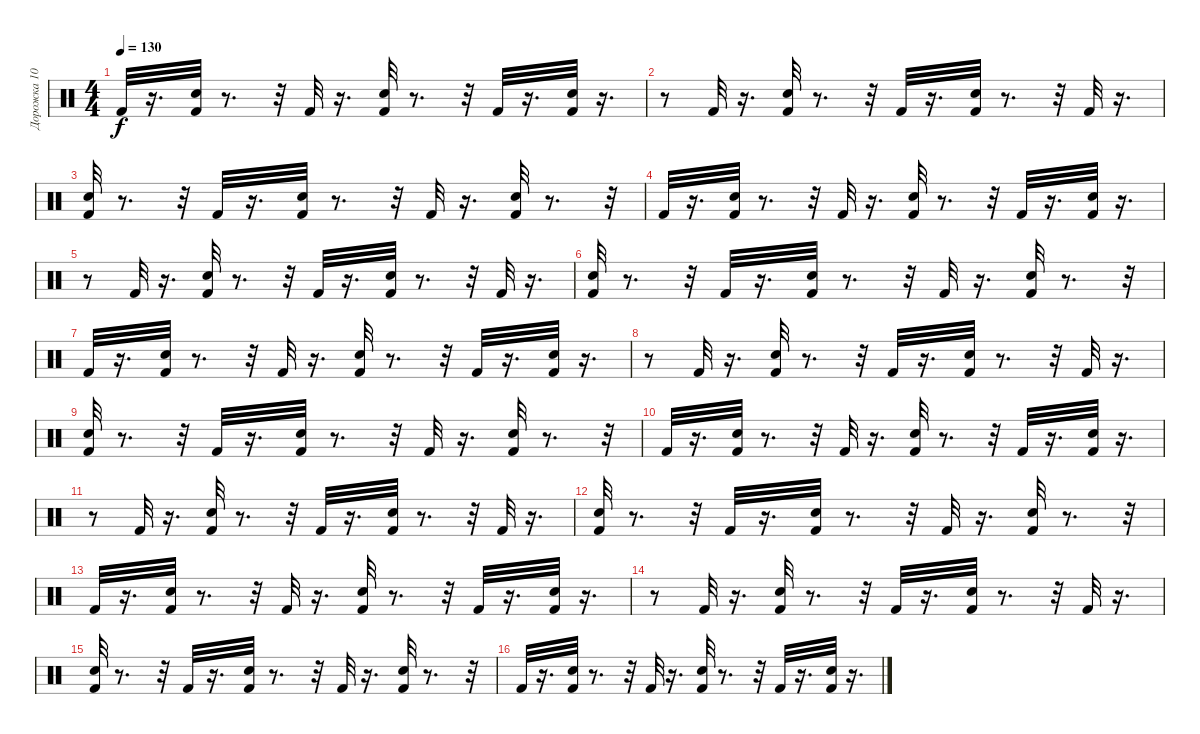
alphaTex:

\track ("Дорожка 10" "Дорожка 10") {instrument percussion}
\staff {score}
\articulation defaults
\ts (4 4)
\tempo 130
\clef neutral
\ks c "Kick (hit) 2".32{dy f}
r.16{d} ("Snare (hit)" "Kick (hit) 2").32 r.8{d} r.32 "Kick (hit) 2".32 r.16{d} ("Snare (hit)" "Kick (hit) 2").32 r.8{d} r.32 "Kick (hit) 2".32 r.16{d} ("Snare (hit)" "Kick (hit) 2").32 r.16{d} |
r.8 "Kick (hit) 2".32 r.16{d} ("Snare (hit)" "Kick (hit) 2").32 r.8{d} r.32 "Kick (hit) 2".32 r.16{d} ("Snare (hit)" "Kick (hit) 2").32 r.8{d} r.32 "Kick (hit) 2".32 r.16{d} |
("Snare (hit)" "Kick (hit) 2").32 r.8{d} r.32 "Kick (hit) 2".32 r.16{d} ("Snare (hit)" "Kick (hit) 2").32 r.8{d} r.32 "Kick (hit) 2".32 r.16{d} ("Snare (hit)" "Kick (hit) 2").32 r.8{d} r.32 |
"Kick (hit) 2".32 r.16{d} ("Snare (hit)" "Kick (hit) 2").32 r.8{d} r.32 "Kick (hit) 2".32 r.16{d} ("Snare (hit)" "Kick (hit) 2").32 r.8{d} r.32 "Kick (hit) 2".32 r.16{d} ("Snare (hit)" "Kick (hit) 2").32 r.16{d} |
r.8 "Kick (hit) 2".32 r.16{d} ("Snare (hit)" "Kick (hit) 2").32 r.8{d} r.32 "Kick (hit) 2".32 r.16{d} ("Snare (hit)" "Kick (hit) 2").32 r.8{d} r.32 "Kick (hit) 2".32 r.16{d} |
("Snare (hit)" "Kick (hit) 2").32 r.8{d} r.32 "Kick (hit) 2".32 r.16{d} ("Snare (hit)" "Kick (hit) 2").32 r.8{d} r.32 "Kick (hit) 2".32 r.16{d} ("Snare (hit)" "Kick (hit) 2").32 r.8{d} r.32 |
"Kick (hit) 2".32 r.16{d} ("Snare (hit)" "Kick (hit) 2").32 r.8{d} r.32 "Kick (hit) 2".32 r.16{d} ("Snare (hit)" "Kick (hit) 2").32 r.8{d} r.32 "Kick (hit) 2".32 r.16{d} ("Snare (hit)" "Kick (hit) 2").32 r.16{d} |
r.8 "Kick (hit) 2".32 r.16{d} ("Snare (hit)" "Kick (hit) 2").32 r.8{d} r.32 "Kick (hit) 2".32 r.16{d} ("Snare (hit)" "Kick (hit) 2").32 r.8{d} r.32 "Kick (hit) 2".32 r.16{d} |
("Snare (hit)" "Kick (hit) 2").32 r.8{d} r.32 "Kick (hit) 2".32 r.16{d} ("Snare (hit)" "Kick (hit) 2").32 r.8{d} r.32 "Kick (hit) 2".32 r.16{d} ("Snare (hit)" "Kick (hit) 2").32 r.8{d} r.32 |
"Kick (hit) 2".32 r.16{d} ("Snare (hit)" "Kick (hit) 2").32 r.8{d} r.32 "Kick (hit) 2".32 r.16{d} ("Snare (hit)" "Kick (hit) 2").32 r.8{d} r.32 "Kick (hit) 2".32 r.16{d} ("Snare (hit)" "Kick (hit) 2").32 r.16{d} |
r.8 "Kick (hit) 2".32 r.16{d} ("Snare (hit)" "Kick (hit) 2").32 r.8{d} r.32 "Kick (hit) 2".32 r.16{d} ("Snare (hit)" "Kick (hit) 2").32 r.8{d} r.32 "Kick (hit) 2".32 r.16{d} |
("Snare (hit)" "Kick (hit) 2").32 r.8{d} r.32 "Kick (hit) 2".32 r.16{d} ("Snare (hit)" "Kick (hit) 2").32 r.8{d} r.32 "Kick (hit) 2".32 r.16{d} ("Snare (hit)" "Kick (hit) 2").32 r.8{d} r.32 |
"Kick (hit) 2".32 r.16{d} ("Snare (hit)" "Kick (hit) 2").32 r.8{d} r.32 "Kick (hit) 2".32 r.16{d} ("Snare (hit)" "Kick (hit) 2").32 r.8{d} r.32 "Kick (hit) 2".32 r.16{d} ("Snare (hit)" "Kick (hit) 2").32 r.16{d} |
r.8 "Kick (hit) 2".32 r.16{d} ("Snare (hit)" "Kick (hit) 2").32 r.8{d} r.32 "Kick (hit) 2".32 r.16{d} ("Snare (hit)" "Kick (hit) 2").32 r.8{d} r.32 "Kick (hit) 2".32 r.16{d} |
("Snare (hit)" "Kick (hit) 2").32 r.8{d} r.32 "Kick (hit) 2".32 r.16{d} ("Snare (hit)" "Kick (hit) 2").32 r.8{d} r.32 "Kick (hit) 2".32 r.16{d} ("Snare (hit)" "Kick (hit) 2").32 r.8{d} r.32 |
"Kick (hit) 2".32 r.16{d} ("Snare (hit)" "Kick (hit) 2").32 r.8{d} r.32 "Kick (hit) 2".32 r.16{d} ("Snare (hit)" "Kick (hit) 2").32 r.8{d} r.32 "Kick (hit) 2".32 r.16{d} ("Snare (hit)" "Kick (hit) 2").32 r.16{d}
